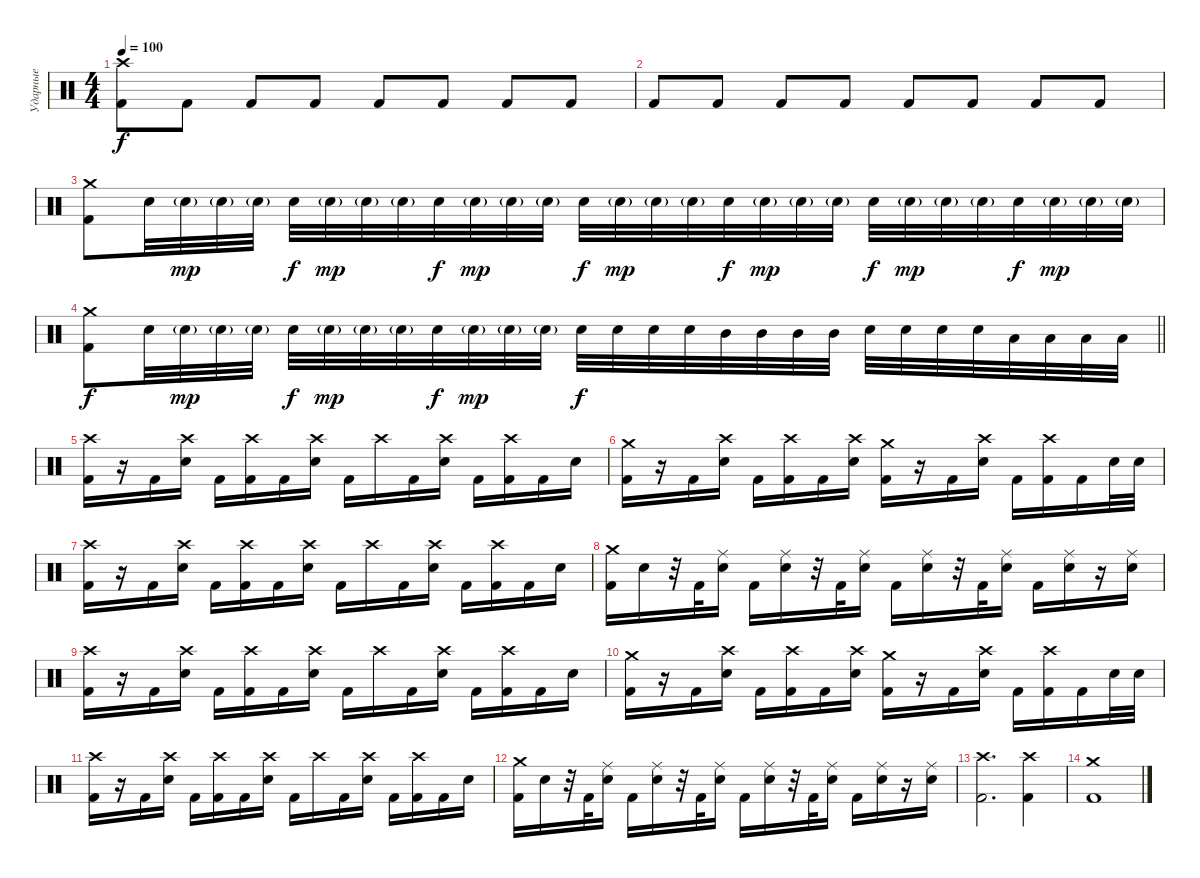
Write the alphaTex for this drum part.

\track ("Ударные" "Ударные") {instrument percussion}
\staff {score}
\articulation defaults
\ts (4 4)
\tempo 100
\clef neutral
\ks c
("Crash high (hit)" "Kick (hit) 2").8{dy f} "Kick (hit) 2".8 "Kick (hit) 2".8 "Kick (hit) 2".8 "Kick (hit) 2".8 "Kick (hit) 2".8 "Kick (hit) 2".8 "Kick (hit) 2".8 |
"Kick (hit) 2".8 "Kick (hit) 2".8 "Kick (hit) 2".8 "Kick (hit) 2".8 "Kick (hit) 2".8 "Kick (hit) 2".8 "Kick (hit) 2".8 "Kick (hit) 2".8 |
("Crash medium (hit)" "Kick (hit) 2").8 "Electric Snare (hit)".32 "Electric Snare (hit)"{g}.32{dy mp} "Electric Snare (hit)"{g}.32 "Electric Snare (hit)"{g}.32 "Electric Snare (hit)".32{dy f} "Electric Snare (hit)"{g}.32{dy mp} "Electric Snare (hit)"{g}.32 "Electric Snare (hit)"{g}.32 "Electric Snare (hit)".32{dy f} "Electric Snare (hit)"{g}.32{dy mp} "Electric Snare (hit)"{g}.32 "Electric Snare (hit)"{g}.32 "Electric Snare (hit)".32{dy f} "Electric Snare (hit)"{g}.32{dy mp} "Electric Snare (hit)"{g}.32 "Electric Snare (hit)"{g}.32 "Electric Snare (hit)".32{dy f} "Electric Snare (hit)"{g}.32{dy mp} "Electric Snare (hit)"{g}.32 "Electric Snare (hit)"{g}.32 "Electric Snare (hit)".32{dy f} "Electric Snare (hit)"{g}.32{dy mp} "Electric Snare (hit)"{g}.32 "Electric Snare (hit)"{g}.32 "Electric Snare (hit)".32{dy f} "Electric Snare (hit)"{g}.32{dy mp} "Electric Snare (hit)"{g}.32 "Electric Snare (hit)"{g}.32 |
\barLineRight lightlight
("Crash medium (hit)" "Kick (hit) 2").8{dy f} "Electric Snare (hit)".32 "Electric Snare (hit)"{g}.32{dy mp} "Electric Snare (hit)"{g}.32 "Electric Snare (hit)"{g}.32 "Electric Snare (hit)".32{dy f} "Electric Snare (hit)"{g}.32{dy mp} "Electric Snare (hit)"{g}.32 "Electric Snare (hit)"{g}.32 "Electric Snare (hit)".32{dy f} "Electric Snare (hit)"{g}.32{dy mp} "Electric Snare (hit)"{g}.32 "Electric Snare (hit)"{g}.32 "Electric Snare (hit)".32{dy f} "Electric Snare (hit)".32 "Electric Snare (hit)".32 "Electric Snare (hit)".32 "Mid Tom (hit)".32 "Mid Tom (hit)".32 "Mid Tom (hit)".32 "Mid Tom (hit)".32 "Electric Snare (hit)".32 "Electric Snare (hit)".32 "Electric Snare (hit)".32 "Electric Snare (hit)".32 "Low Tom (hit)".32 "Low Tom (hit)".32 "Low Tom (hit)".32 "Low Tom (hit)".32 |
\section ("" "")
("Crash high (hit)" "Kick (hit) 2").16 r.16 "Kick (hit) 2".16 ("Crash high (hit)" "Electric Snare (hit)").16 "Kick (hit) 2".16 ("Crash high (hit)" "Kick (hit) 2").16 "Kick (hit) 2".16 ("Crash high (hit)" "Electric Snare (hit)").16 "Kick (hit) 2".16 "Crash high (hit)".16 "Kick (hit) 2".16 ("Crash high (hit)" "Electric Snare (hit)").16 "Kick (hit) 2".16 ("Crash high (hit)" "Kick (hit) 2").16 "Kick (hit) 2".16 "Electric Snare (hit)".16 |
("Crash medium (hit)" "Kick (hit) 2").16 r.16 "Kick (hit) 2".16 ("Crash high (hit)" "Electric Snare (hit)").16 "Kick (hit) 2".16 ("Crash high (hit)" "Kick (hit) 2").16 "Kick (hit) 2".16 ("Crash high (hit)" "Electric Snare (hit)").16 ("Crash medium (hit)" "Kick (hit) 2").16 r.16 "Kick (hit) 2".16 ("Crash high (hit)" "Electric Snare (hit)").16 "Kick (hit) 2".16 ("Crash high (hit)" "Kick (hit) 2").16 "Kick (hit) 2".16 "Electric Snare (hit)".32 "Electric Snare (hit)".32 |
("Crash high (hit)" "Kick (hit) 2").16 r.16 "Kick (hit) 2".16 ("Crash high (hit)" "Electric Snare (hit)").16 "Kick (hit) 2".16 ("Crash high (hit)" "Kick (hit) 2").16 "Kick (hit) 2".16 ("Crash high (hit)" "Electric Snare (hit)").16 "Kick (hit) 2".16 "Crash high (hit)".16 "Kick (hit) 2".16 ("Crash high (hit)" "Electric Snare (hit)").16 "Kick (hit) 2".16 ("Crash high (hit)" "Kick (hit) 2").16 "Kick (hit) 2".16 "Electric Snare (hit)".16 |
("Crash medium (hit)" "Kick (hit) 2").16 "Electric Snare (hit)".16 r.32 "Kick (hit) 2".32 ("Ride (middle)" "Electric Snare (hit)").16 "Kick (hit) 2".16 ("Ride (middle)" "Electric Snare (hit)").16 r.32 "Kick (hit) 2".32 ("Ride (middle)" "Electric Snare (hit)").16 "Kick (hit) 2".16 ("Ride (middle)" "Electric Snare (hit)").16 r.32 "Kick (hit) 2".32 ("Ride (middle)" "Electric Snare (hit)").16 "Kick (hit) 2".16 ("Ride (middle)" "Electric Snare (hit)").16 r.16 ("Ride (middle)" "Electric Snare (hit)").16 |
("Crash high (hit)" "Kick (hit) 2").16 r.16 "Kick (hit) 2".16 ("Crash high (hit)" "Electric Snare (hit)").16 "Kick (hit) 2".16 ("Crash high (hit)" "Kick (hit) 2").16 "Kick (hit) 2".16 ("Crash high (hit)" "Electric Snare (hit)").16 "Kick (hit) 2".16 "Crash high (hit)".16 "Kick (hit) 2".16 ("Crash high (hit)" "Electric Snare (hit)").16 "Kick (hit) 2".16 ("Crash high (hit)" "Kick (hit) 2").16 "Kick (hit) 2".16 "Electric Snare (hit)".16 |
("Crash medium (hit)" "Kick (hit) 2").16 r.16 "Kick (hit) 2".16 ("Crash high (hit)" "Electric Snare (hit)").16 "Kick (hit) 2".16 ("Crash high (hit)" "Kick (hit) 2").16 "Kick (hit) 2".16 ("Crash high (hit)" "Electric Snare (hit)").16 ("Crash medium (hit)" "Kick (hit) 2").16 r.16 "Kick (hit) 2".16 ("Crash high (hit)" "Electric Snare (hit)").16 "Kick (hit) 2".16 ("Crash high (hit)" "Kick (hit) 2").16 "Kick (hit) 2".16 "Electric Snare (hit)".32 "Electric Snare (hit)".32 |
("Crash high (hit)" "Kick (hit) 2").16 r.16 "Kick (hit) 2".16 ("Crash high (hit)" "Electric Snare (hit)").16 "Kick (hit) 2".16 ("Crash high (hit)" "Kick (hit) 2").16 "Kick (hit) 2".16 ("Crash high (hit)" "Electric Snare (hit)").16 "Kick (hit) 2".16 "Crash high (hit)".16 "Kick (hit) 2".16 ("Crash high (hit)" "Electric Snare (hit)").16 "Kick (hit) 2".16 ("Crash high (hit)" "Kick (hit) 2").16 "Kick (hit) 2".16 "Electric Snare (hit)".16 |
("Crash medium (hit)" "Kick (hit) 2").16 "Electric Snare (hit)".16 r.32 "Kick (hit) 2".32 ("Ride (middle)" "Electric Snare (hit)").16 "Kick (hit) 2".16 ("Ride (middle)" "Electric Snare (hit)").16 r.32 "Kick (hit) 2".32 ("Ride (middle)" "Electric Snare (hit)").16 "Kick (hit) 2".16 ("Ride (middle)" "Electric Snare (hit)").16 r.32 "Kick (hit) 2".32 ("Ride (middle)" "Electric Snare (hit)").16 "Kick (hit) 2".16 ("Ride (middle)" "Electric Snare (hit)").16 r.16 ("Ride (middle)" "Electric Snare (hit)").16 |
("Crash high (hit)" "Kick (hit) 2").2{d} ("Crash high (hit)" "Kick (hit) 2").4 |
("Crash medium (hit)" "Kick (hit) 2").1
